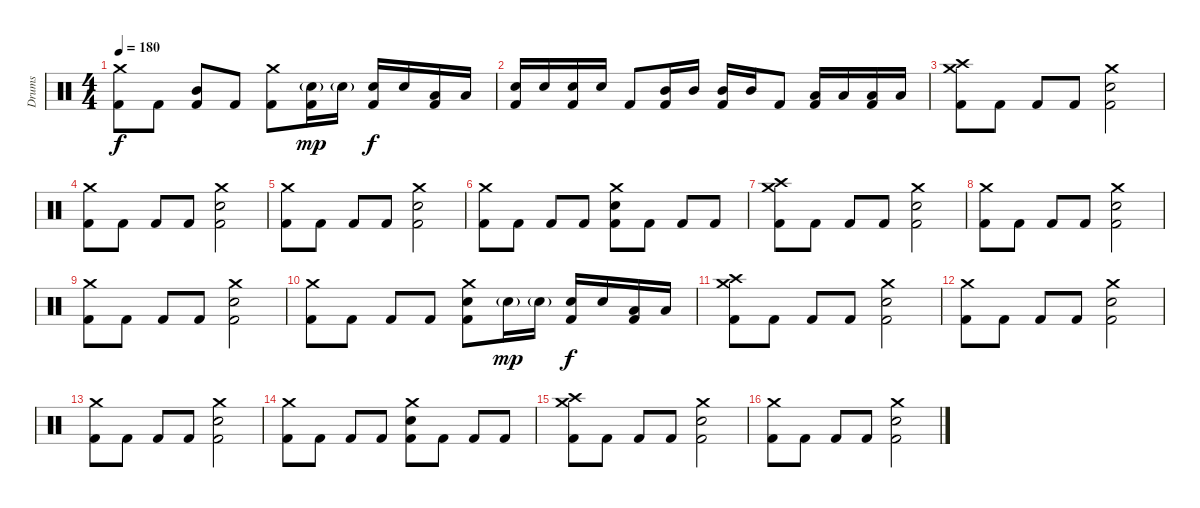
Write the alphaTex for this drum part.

\track ("Drums" "Drums") {instrument percussion}
\staff {score}
\articulation defaults
\ts (4 4)
\tempo 180
\clef neutral
\ks c
("Crash medium (hit)" "Kick (hit) 2").8{dy f} "Kick (hit) 2".8 ("Mid Tom (hit)" "Kick (hit) 2").8 "Kick (hit) 2".8 ("Crash medium (hit)" "Kick (hit) 2").8 ("Snare (hit) 2"{g} "Kick (hit) 2").16{dy mp} "Snare (hit) 2"{g}.16 ("Snare (hit) 2" "Kick (hit) 2").16{dy f} "Snare (hit) 2".16 ("Low Tom (hit)" "Kick (hit) 2").16 "Low Tom (hit)".16 |
("Snare (hit) 2" "Kick (hit) 2").16 "Snare (hit) 2".16 ("Snare (hit) 2" "Kick (hit) 2").16 "Snare (hit) 2".16 "Kick (hit) 2".8 ("Mid Tom (hit)" "Kick (hit) 2").16 "Mid Tom (hit)".16 ("Mid Tom (hit)" "Kick (hit) 2").16 "Mid Tom (hit)".16 "Kick (hit) 2".8 ("Low Tom (hit)" "Kick (hit) 2").16 "Low Tom (hit)".16 ("Low Tom (hit)" "Kick (hit) 2").16 "Low Tom (hit)".16 |
("Crash high (hit)" "Crash medium (hit)" "Kick (hit) 2").8 "Kick (hit) 2".8 "Kick (hit) 2".8 "Kick (hit) 2".8 ("Crash medium (hit)" "Snare (hit) 2" "Kick (hit) 2").2 |
("Crash medium (hit)" "Kick (hit) 2").8 "Kick (hit) 2".8 "Kick (hit) 2".8 "Kick (hit) 2".8 ("Crash medium (hit)" "Snare (hit) 2" "Kick (hit) 2").2 |
("Crash medium (hit)" "Kick (hit) 2").8 "Kick (hit) 2".8 "Kick (hit) 2".8 "Kick (hit) 2".8 ("Crash medium (hit)" "Snare (hit) 2" "Kick (hit) 2").2 |
("Crash medium (hit)" "Kick (hit) 2").8 "Kick (hit) 2".8 "Kick (hit) 2".8 "Kick (hit) 2".8 ("Crash medium (hit)" "Snare (hit) 2" "Kick (hit) 2").8 "Kick (hit) 2".8 "Kick (hit) 2".8 "Kick (hit) 2".8 |
("Crash high (hit)" "Crash medium (hit)" "Kick (hit) 2").8 "Kick (hit) 2".8 "Kick (hit) 2".8 "Kick (hit) 2".8 ("Crash medium (hit)" "Snare (hit) 2" "Kick (hit) 2").2 |
("Crash medium (hit)" "Kick (hit) 2").8 "Kick (hit) 2".8 "Kick (hit) 2".8 "Kick (hit) 2".8 ("Crash medium (hit)" "Snare (hit) 2" "Kick (hit) 2").2 |
("Crash medium (hit)" "Kick (hit) 2").8 "Kick (hit) 2".8 "Kick (hit) 2".8 "Kick (hit) 2".8 ("Crash medium (hit)" "Snare (hit) 2" "Kick (hit) 2").2 |
("Crash medium (hit)" "Kick (hit) 2").8 "Kick (hit) 2".8 "Kick (hit) 2".8 "Kick (hit) 2".8 ("Crash medium (hit)" "Snare (hit) 2" "Kick (hit) 2").8 "Snare (hit) 2"{g}.16{dy mp} "Snare (hit) 2"{g}.16 ("Snare (hit) 2" "Kick (hit) 2").16{dy f} "Snare (hit) 2".16 ("Low Tom (hit)" "Kick (hit) 2").16 "Low Tom (hit)".16 |
("Crash high (hit)" "Crash medium (hit)" "Kick (hit) 2").8 "Kick (hit) 2".8 "Kick (hit) 2".8 "Kick (hit) 2".8 ("Crash medium (hit)" "Snare (hit) 2" "Kick (hit) 2").2 |
("Crash medium (hit)" "Kick (hit) 2").8 "Kick (hit) 2".8 "Kick (hit) 2".8 "Kick (hit) 2".8 ("Crash medium (hit)" "Snare (hit) 2" "Kick (hit) 2").2 |
("Crash medium (hit)" "Kick (hit) 2").8 "Kick (hit) 2".8 "Kick (hit) 2".8 "Kick (hit) 2".8 ("Crash medium (hit)" "Snare (hit) 2" "Kick (hit) 2").2 |
("Crash medium (hit)" "Kick (hit) 2").8 "Kick (hit) 2".8 "Kick (hit) 2".8 "Kick (hit) 2".8 ("Crash medium (hit)" "Snare (hit) 2" "Kick (hit) 2").8 "Kick (hit) 2".8 "Kick (hit) 2".8 "Kick (hit) 2".8 |
("Crash high (hit)" "Crash medium (hit)" "Kick (hit) 2").8 "Kick (hit) 2".8 "Kick (hit) 2".8 "Kick (hit) 2".8 ("Crash medium (hit)" "Snare (hit) 2" "Kick (hit) 2").2 |
("Crash medium (hit)" "Kick (hit) 2").8 "Kick (hit) 2".8 "Kick (hit) 2".8 "Kick (hit) 2".8 ("Crash medium (hit)" "Snare (hit) 2" "Kick (hit) 2").2
